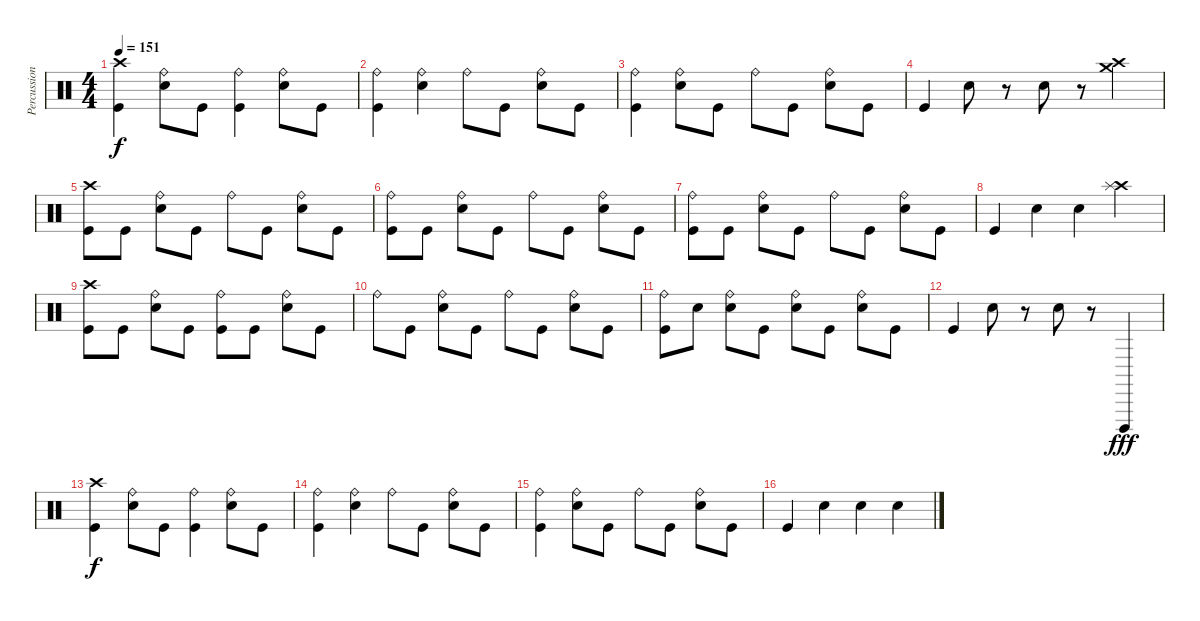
\track ("Percussion" "Percussion") {instrument percussion}
\staff {score}
\articulation defaults
\ts (4 4)
\tempo 151
\clef neutral
\ks c
("Crash high (hit)" "Kick (hit)").4{dy f} ("Ride (bell)" "Snare (hit) 2").8 "Kick (hit)".8 ("Ride (bell)" "Kick (hit)").4 ("Ride (bell)" "Snare (hit) 2").8 "Kick (hit)".8 |
("Ride (bell)" "Kick (hit)").4 ("Ride (bell)" "Snare (hit) 2").4 "Ride (bell)".8 "Kick (hit)".8 ("Ride (bell)" "Snare (hit) 2").8 "Kick (hit)".8 |
("Ride (bell)" "Kick (hit)").4 ("Ride (bell)" "Snare (hit) 2").8 "Kick (hit)".8 "Ride (bell)".8 "Kick (hit)".8 ("Ride (bell)" "Snare (hit) 2").8 "Kick (hit)".8 |
"Kick (hit)".4 "Snare (hit) 2".8 r.8 "Snare (hit) 2".8 r.8 ("Crash high (hit)" "Crash medium (hit)").4 |
("Crash high (hit)" "Kick (hit)").8 "Kick (hit)".8 ("Ride (bell)" "Snare (hit) 2").8 "Kick (hit)".8 "Ride (bell)".8 "Kick (hit)".8 ("Ride (bell)" "Snare (hit) 2").8 "Kick (hit)".8 |
("Ride (bell)" "Kick (hit)").8 "Kick (hit)".8 ("Ride (bell)" "Snare (hit) 2").8 "Kick (hit)".8 "Ride (bell)".8 "Kick (hit)".8 ("Ride (bell)" "Snare (hit) 2").8 "Kick (hit)".8 |
("Ride (bell)" "Kick (hit)").8 "Kick (hit)".8 ("Ride (bell)" "Snare (hit) 2").8 "Kick (hit)".8 "Ride (bell)".8 "Kick (hit)".8 ("Ride (bell)" "Snare (hit) 2").8 "Kick (hit)".8 |
"Kick (hit)".4 "Snare (hit) 2".4 "Snare (hit) 2".4 ("Crash high (hit)" "Splash (hit)").4 |
("Crash high (hit)" "Kick (hit)").8 "Kick (hit)".8 ("Ride (bell)" "Snare (hit) 2").8 "Kick (hit)".8 ("Ride (bell)" "Kick (hit)").8 "Kick (hit)".8 ("Ride (bell)" "Snare (hit) 2").8 "Kick (hit)".8 |
"Ride (bell)".8 "Kick (hit)".8 ("Ride (bell)" "Snare (hit) 2").8 "Kick (hit)".8 "Ride (bell)".8 "Kick (hit)".8 ("Ride (bell)" "Snare (hit) 2").8 "Kick (hit)".8 |
("Ride (bell)" "Kick (hit)").8 "Snare (hit) 2".8 ("Ride (bell)" "Snare (hit) 2").8 "Kick (hit)".8 ("Ride (bell)" "Snare (hit) 2").8 "Kick (hit)".8 ("Ride (bell)" "Snare (hit) 2").8 "Kick (hit)".8 |
"Kick (hit)".4 "Snare (hit) 2".8 r.8 "Snare (hit) 2".8 r.8 "Cuica (open)".4{dy fff} |
("Crash high (hit)" "Kick (hit)").4{dy f} ("Ride (bell)" "Snare (hit) 2").8 "Kick (hit)".8 ("Ride (bell)" "Kick (hit)").4 ("Ride (bell)" "Snare (hit) 2").8 "Kick (hit)".8 |
("Ride (bell)" "Kick (hit)").4 ("Ride (bell)" "Snare (hit) 2").4 "Ride (bell)".8 "Kick (hit)".8 ("Ride (bell)" "Snare (hit) 2").8 "Kick (hit)".8 |
("Ride (bell)" "Kick (hit)").4 ("Ride (bell)" "Snare (hit) 2").8 "Kick (hit)".8 "Ride (bell)".8 "Kick (hit)".8 ("Ride (bell)" "Snare (hit) 2").8 "Kick (hit)".8 |
"Kick (hit)".4 "Snare (hit) 2".4 "Snare (hit) 2".4 "Hand Clap (hit)".4
